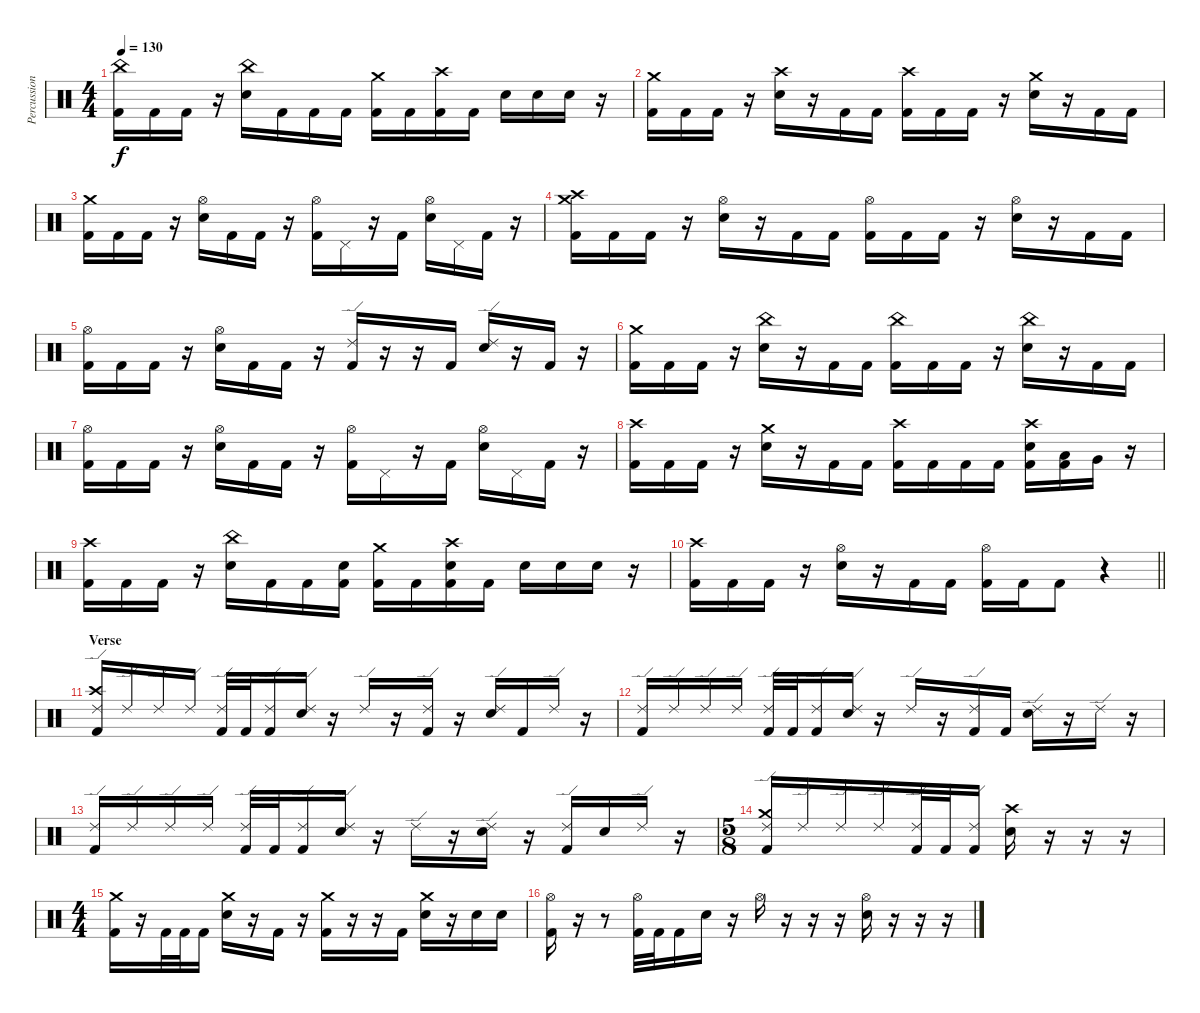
\track ("Percussion" "Percussion") {instrument percussion}
\staff {score}
\articulation defaults
\ts (4 4)
\tempo 130
\clef neutral
\ks c
("China (hit)" "Kick (hit) 2").16{dy f} "Kick (hit) 2".16 "Kick (hit) 2".16 r.16 ("China (hit)" "Electric Snare (hit)").16 "Kick (hit) 2".16 "Kick (hit) 2".16 "Kick (hit) 2".16 ("Crash medium (hit)" "Kick (hit) 2").16 "Kick (hit) 2".16 ("Crash high (hit)" "Kick (hit) 2").16 "Kick (hit) 2".16 "Electric Snare (hit)".16 "Electric Snare (hit)".16 "Electric Snare (hit)".16 r.16 |
("Crash medium (hit)" "Kick (hit) 2").16 "Kick (hit) 2".16 "Kick (hit) 2".16 r.16 ("Crash high (hit)" "Electric Snare (hit)").16 r.16 "Kick (hit) 2".16 "Kick (hit) 2".16 ("Crash high (hit)" "Kick (hit) 2").16 "Kick (hit) 2".16 "Kick (hit) 2".16 r.16 ("Crash medium (hit)" "Electric Snare (hit)").16 r.16 "Kick (hit) 2".16 "Kick (hit) 2".16 |
("Crash medium (hit)" "Kick (hit) 2").16 "Kick (hit) 2".16 "Kick (hit) 2".16 r.16 ("Hi-Hat (open)" "Electric Snare (hit)").16 "Kick (hit) 2".16 "Kick (hit) 2".16 r.16 ("Hi-Hat (open)" "Kick (hit) 2").16 "Pedal Hi-Hat (hit)".16 r.16 "Kick (hit) 2".16 ("Hi-Hat (open)" "Electric Snare (hit)").16 "Pedal Hi-Hat (hit)".16 "Kick (hit) 2".16 r.16 |
("Crash medium (hit)" "Crash high (hit)" "Kick (hit) 2").16 "Kick (hit) 2".16 "Kick (hit) 2".16 r.16 ("Hi-Hat (open)" "Electric Snare (hit)").16 r.16 "Kick (hit) 2".16 "Kick (hit) 2".16 ("Hi-Hat (open)" "Kick (hit) 2").16 "Kick (hit) 2".16 "Kick (hit) 2".16 r.16 ("Hi-Hat (open)" "Electric Snare (hit)").16 r.16 "Kick (hit) 2".16 "Kick (hit) 2".16 |
("Hi-Hat (open)" "Kick (hit) 2").16 "Kick (hit) 2".16 "Kick (hit) 2".16 r.16 ("Hi-Hat (open)" "Electric Snare (hit)").16 "Kick (hit) 2".16 "Kick (hit) 2".16 r.16 ("Ride (edge) 2" "Kick (hit) 2").16 r.16 r.16 "Kick (hit) 2".16 ("Ride (edge) 2" "Electric Snare (hit)").16 r.16 "Kick (hit) 2".16 r.16 |
("Crash medium (hit)" "Kick (hit) 2").16 "Kick (hit) 2".16 "Kick (hit) 2".16 r.16 ("China (hit)" "Electric Snare (hit)").16 r.16 "Kick (hit) 2".16 "Kick (hit) 2".16 ("China (hit)" "Kick (hit) 2").16 "Kick (hit) 2".16 "Kick (hit) 2".16 r.16 ("China (hit)" "Electric Snare (hit)").16 r.16 "Kick (hit) 2".16 "Kick (hit) 2".16 |
("Hi-Hat (open)" "Kick (hit) 2").16 "Kick (hit) 2".16 "Kick (hit) 2".16 r.16 ("Hi-Hat (open)" "Electric Snare (hit)").16 "Kick (hit) 2".16 "Kick (hit) 2".16 r.16 ("Hi-Hat (open)" "Kick (hit) 2").16 "Pedal Hi-Hat (hit)".16 r.16 "Kick (hit) 2".16 ("Hi-Hat (open)" "Electric Snare (hit)").16 "Pedal Hi-Hat (hit)".16 "Kick (hit) 2".16 r.16 |
("Crash high (hit)" "Kick (hit) 2").16 "Kick (hit) 2".16 "Kick (hit) 2".16 r.16 ("Crash medium (hit)" "Electric Snare (hit)").16 r.16 "Kick (hit) 2".16 "Kick (hit) 2".16 ("Crash high (hit)" "Kick (hit) 2").16 "Kick (hit) 2".16 "Kick (hit) 2".16 "Kick (hit) 2".16 ("Crash high (hit)" "Electric Snare (hit)" "Kick (hit) 2").16 ("Low Tom (hit)" "Kick (hit) 2").16 "Very Low Tom (hit)".16 r.16 |
("Crash high (hit)" "Kick (hit) 2").16 "Kick (hit) 2".16 "Kick (hit) 2".16 r.16 ("China (hit)" "Electric Snare (hit)").16 "Kick (hit) 2".16 "Kick (hit) 2".16 ("Electric Snare (hit)" "Kick (hit) 2").16 ("Crash medium (hit)" "Kick (hit) 2").16 "Kick (hit) 2".16 ("Crash high (hit)" "Electric Snare (hit)" "Kick (hit) 2").16 "Kick (hit) 2".16 "Electric Snare (hit)".16 "Electric Snare (hit)".16 "Electric Snare (hit)".16 r.16 |
\barLineRight lightlight
("Crash high (hit)" "Kick (hit) 2").16 "Kick (hit) 2".16 "Kick (hit) 2".16 r.16 ("Hi-Hat (open)" "Electric Snare (hit)").16 r.16 "Kick (hit) 2".16 "Kick (hit) 2".16 ("Hi-Hat (open)" "Kick (hit) 2").16 "Kick (hit) 2".16 "Kick (hit) 2".8 r.4 |
\section ("" "Verse")
("Crash high (hit)" "Ride (edge) 2" "Kick (hit) 2").16 "Ride (edge) 2".16 "Ride (edge) 2".16 "Ride (edge) 2".16 ("Ride (edge) 2" "Kick (hit) 2").32 "Kick (hit) 2".32 ("Ride (edge) 2" "Kick (hit) 2").16 ("Ride (edge) 2" "Electric Snare (hit)").16 r.16 "Ride (edge) 2".16 r.16 ("Ride (edge) 2" "Kick (hit) 2").16 r.16 ("Ride (edge) 2" "Electric Snare (hit)").16 "Kick (hit) 2".16 "Ride (edge) 2".16 r.16 |
("Ride (edge) 2" "Kick (hit) 2").16 "Ride (edge) 2".16 "Ride (edge) 2".16 "Ride (edge) 2".16 ("Ride (edge) 2" "Kick (hit) 2").32 "Kick (hit) 2".32 ("Ride (edge) 2" "Kick (hit) 2").16 ("Ride (edge) 2" "Electric Snare (hit)").16 r.16 "Ride (edge) 2".16 r.16 ("Ride (edge) 2" "Kick (hit) 2").16 "Kick (hit) 2".16 ("Ride (edge) 2" "Electric Snare (hit)").16 r.16 "Ride (edge) 2".16 r.16 |
("Ride (edge) 2" "Kick (hit) 2").16 "Ride (edge) 2".16 "Ride (edge) 2".16 "Ride (edge) 2".16 ("Ride (edge) 2" "Kick (hit) 2").32 "Kick (hit) 2".32 ("Ride (edge) 2" "Kick (hit) 2").16 ("Ride (edge) 2" "Electric Snare (hit)").16 r.16 "Ride (edge) 2".16 r.16 ("Ride (edge) 2" "Electric Snare (hit)").16 r.16 ("Ride (edge) 2" "Kick (hit) 2").16 "Electric Snare (hit)".16 "Ride (edge) 2".16 r.16 |
\ts (5 8)
("Crash medium (hit)" "Ride (edge) 2" "Kick (hit) 2").16 "Ride (edge) 2".16 "Ride (edge) 2".16 "Ride (edge) 2".16 ("Ride (edge) 2" "Kick (hit) 2").32 "Kick (hit) 2".32 ("Ride (edge) 2" "Kick (hit) 2").16 ("Crash high (hit)" "Electric Snare (hit)").16 r.16 r.16 r.16 |
\ts (4 4)
("Crash medium (hit)" "Kick (hit) 2").16 r.16 "Kick (hit) 2".32 "Kick (hit) 2".32 "Kick (hit) 2".16 ("Crash medium (hit)" "Electric Snare (hit)").16 r.16 "Kick (hit) 2".16 r.16 ("Crash medium (hit)" "Kick (hit) 2").16 r.16 r.16 "Kick (hit) 2".16 ("Crash medium (hit)" "Electric Snare (hit)").16 r.16 "Electric Snare (hit)".16 "Electric Snare (hit)".16 |
("Hi-Hat (open)" "Kick (hit) 2").16 r.16 r.8 ("Hi-Hat (open)" "Kick (hit) 2").32 "Kick (hit) 2".32 "Kick (hit) 2".16 "Electric Snare (hit)".16 r.16 "Hi-Hat (open)".16 r.16 r.16 r.16 ("Hi-Hat (open)" "Electric Snare (hit)").16 r.16 r.16 r.16
